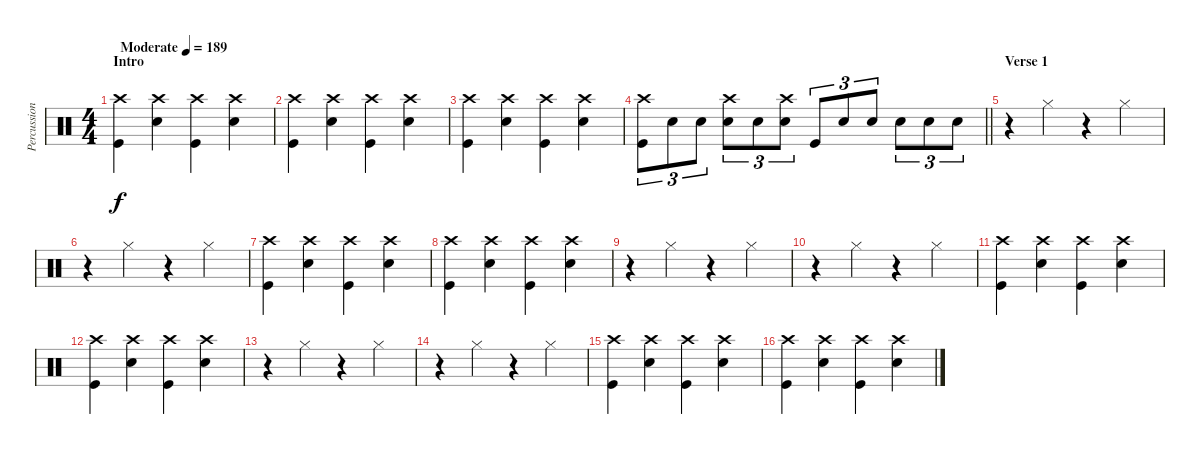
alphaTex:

\track ("Percussions" "Percussion") {instrument percussion}
\staff {score}
\articulation defaults
\ts (4 4)
\section ("" "Intro")
\tempo (189 "Moderate")
\clef neutral
\ks c
("Crash high (hit)" "Kick (hit)").4{dy f} ("Crash high (hit)" "Snare (hit) 2").4 ("Crash high (hit)" "Kick (hit)").4 ("Crash high (hit)" "Snare (hit) 2").4 |
("Crash high (hit)" "Kick (hit)").4 ("Crash high (hit)" "Snare (hit) 2").4 ("Crash high (hit)" "Kick (hit)").4 ("Crash high (hit)" "Snare (hit) 2").4 |
("Crash high (hit)" "Kick (hit)").4 ("Crash high (hit)" "Snare (hit) 2").4 ("Crash high (hit)" "Kick (hit)").4 ("Crash high (hit)" "Snare (hit) 2").4 |
\barLineRight lightlight
("Crash high (hit)" "Kick (hit)").8{tu (3 2)} "Snare (hit) 2".8{tu (3 2)} "Snare (hit) 2".8{tu (3 2)} ("Crash high (hit)" "Snare (hit) 2").8{tu (3 2)} "Snare (hit) 2".8{tu (3 2)} ("Crash high (hit)" "Snare (hit) 2").8{tu (3 2)} "Kick (hit)".8{tu (3 2)} "Snare (hit) 2".8{tu (3 2)} "Snare (hit) 2".8{tu (3 2)} "Snare (hit) 2".8{tu (3 2)} "Snare (hit) 2".8{tu (3 2)} "Snare (hit) 2".8{tu (3 2)} |
\section ("" "Verse 1")
r.4 "Hi-Hat (closed)".4 r.4 "Hi-Hat (closed)".4 |
r.4 "Hi-Hat (closed)".4 r.4 "Hi-Hat (closed)".4 |
("Crash high (hit)" "Kick (hit)").4 ("Crash high (hit)" "Snare (hit) 2").4 ("Crash high (hit)" "Kick (hit)").4 ("Crash high (hit)" "Snare (hit) 2").4 |
("Crash high (hit)" "Kick (hit)").4 ("Crash high (hit)" "Snare (hit) 2").4 ("Crash high (hit)" "Kick (hit)").4 ("Crash high (hit)" "Snare (hit) 2").4 |
r.4 "Hi-Hat (closed)".4 r.4 "Hi-Hat (closed)".4 |
r.4 "Hi-Hat (closed)".4 r.4 "Hi-Hat (closed)".4 |
("Crash high (hit)" "Kick (hit)").4 ("Crash high (hit)" "Snare (hit) 2").4 ("Crash high (hit)" "Kick (hit)").4 ("Crash high (hit)" "Snare (hit) 2").4 |
("Crash high (hit)" "Kick (hit)").4 ("Crash high (hit)" "Snare (hit) 2").4 ("Crash high (hit)" "Kick (hit)").4 ("Crash high (hit)" "Snare (hit) 2").4 |
r.4 "Hi-Hat (closed)".4 r.4 "Hi-Hat (closed)".4 |
r.4 "Hi-Hat (closed)".4 r.4 "Hi-Hat (closed)".4 |
("Crash high (hit)" "Kick (hit)").4 ("Crash high (hit)" "Snare (hit) 2").4 ("Crash high (hit)" "Kick (hit)").4 ("Crash high (hit)" "Snare (hit) 2").4 |
("Crash high (hit)" "Kick (hit)").4 ("Crash high (hit)" "Snare (hit) 2").4 ("Crash high (hit)" "Kick (hit)").4 ("Crash high (hit)" "Snare (hit) 2").4
